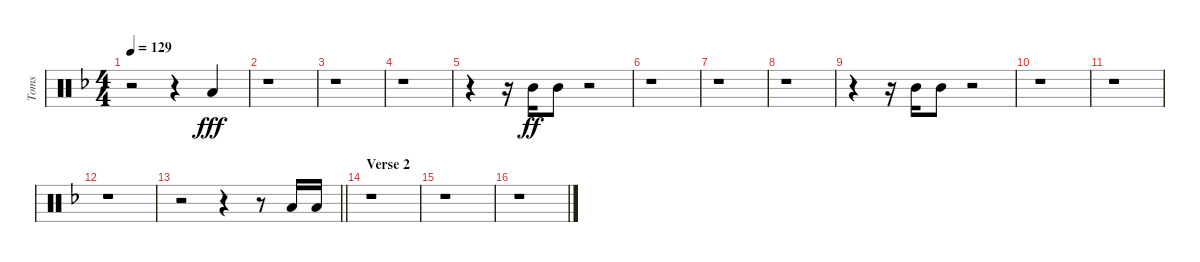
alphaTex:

\track ("Toms" "Toms") {instrument percussion}
\staff {score}
\articulation defaults
\ts (4 4)
\tempo 129
\clef neutral
\ks dminor
r.2{dy fff} r.4{volume 15 balance 4} "Low Floor Tom (hit)".4 |
r.1 |
r.1 |
r.1 |
r.4 r.16{balance 11} "Mid Tom (hit)".16{dy ff} "Mid Tom (hit)".8 r.2 |
r.1 |
r.1 |
r.1 |
r.4 r.16 "Mid Tom (hit)".16 "Mid Tom (hit)".8 r.2 |
r.1 |
r.1 |
r.1 |
\barLineRight lightlight
r.2 r.4 r.8 "Low Tom (hit)".16 "Low Tom (hit)".16 |
\section ("" "Verse 2")
r.1 |
r.1 |
r.1
